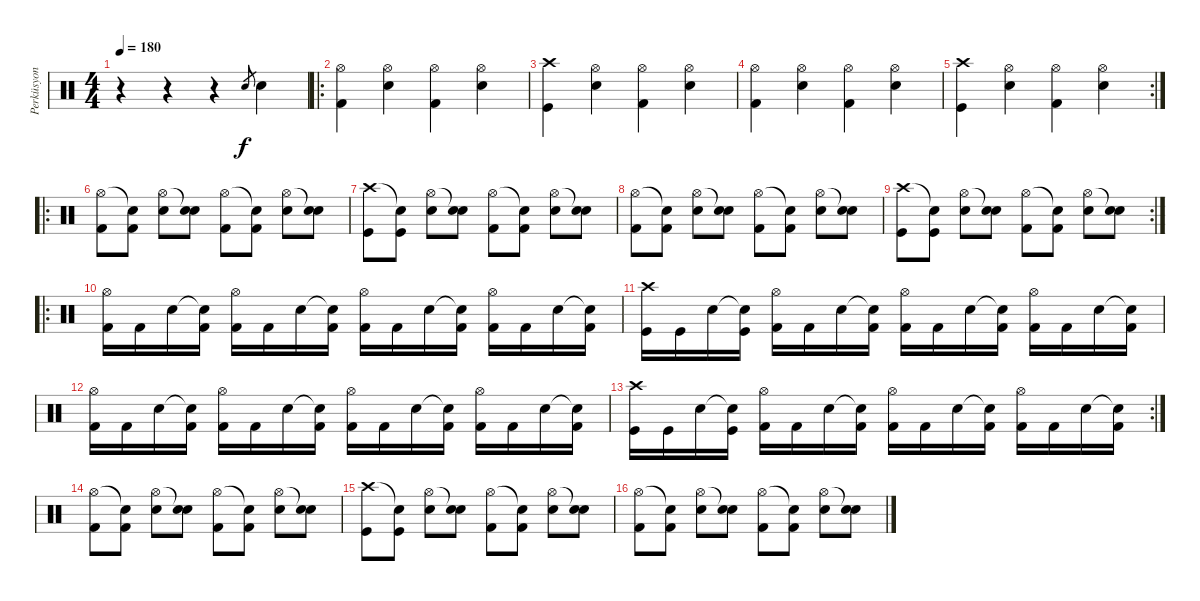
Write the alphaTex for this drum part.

\track ("Perküsyon" "Perküsyon") {instrument percussion}
\staff {score}
\articulation defaults
\ts (4 4)
\tempo 180
\clef neutral
\ks c
r.4{dy f} r.4 r.4 "Electric Snare (hit)".8{gr} "Electric Snare (hit)".4 |
\ro
("Hi-Hat (open)" "Kick (hit) 2").4 ("Hi-Hat (open)" "Electric Snare (hit)").4 ("Hi-Hat (open)" "Kick (hit) 2").4 ("Hi-Hat (open)" "Electric Snare (hit)").4 |
("Crash high (hit)" "Kick (hit)").4 ("Hi-Hat (open)" "Electric Snare (hit)").4 ("Hi-Hat (open)" "Kick (hit) 2").4 ("Hi-Hat (open)" "Electric Snare (hit)").4 |
("Hi-Hat (open)" "Kick (hit) 2").4 ("Hi-Hat (open)" "Electric Snare (hit)").4 ("Hi-Hat (open)" "Kick (hit) 2").4 ("Hi-Hat (open)" "Electric Snare (hit)").4 |
\rc 2
("Crash high (hit)" "Kick (hit)").4 ("Hi-Hat (open)" "Electric Snare (hit)").4 ("Hi-Hat (open)" "Kick (hit) 2").4 ("Hi-Hat (open)" "Electric Snare (hit)").4 |
\ro
("Hi-Hat (open)" "Kick (hit) 2").8 ("Snare (hit)"{t} "Kick (hit) 2").8 ("Hi-Hat (open)" "Electric Snare (hit)").8 ("Snare (hit)"{t} "Electric Snare (hit)").8 ("Hi-Hat (open)" "Kick (hit) 2").8 ("Snare (hit)"{t} "Kick (hit) 2").8 ("Hi-Hat (open)" "Electric Snare (hit)").8 ("Snare (hit)"{t} "Electric Snare (hit)").8 |
("Crash high (hit)" "Kick (hit)").8 ("Snare (hit)"{t} "Kick (hit)").8 ("Hi-Hat (open)" "Electric Snare (hit)").8 ("Snare (hit)"{t} "Electric Snare (hit)").8 ("Hi-Hat (open)" "Kick (hit) 2").8 ("Snare (hit)"{t} "Kick (hit) 2").8 ("Hi-Hat (open)" "Electric Snare (hit)").8 ("Snare (hit)"{t} "Electric Snare (hit)").8 |
("Hi-Hat (open)" "Kick (hit) 2").8 ("Snare (hit)"{t} "Kick (hit) 2").8 ("Hi-Hat (open)" "Electric Snare (hit)").8 ("Snare (hit)"{t} "Electric Snare (hit)").8 ("Hi-Hat (open)" "Kick (hit) 2").8 ("Snare (hit)"{t} "Kick (hit) 2").8 ("Hi-Hat (open)" "Electric Snare (hit)").8 ("Snare (hit)"{t} "Electric Snare (hit)").8 |
\rc 2
("Crash high (hit)" "Kick (hit)").8 ("Snare (hit)"{t} "Kick (hit)").8 ("Hi-Hat (open)" "Electric Snare (hit)").8 ("Snare (hit)"{t} "Electric Snare (hit)").8 ("Hi-Hat (open)" "Kick (hit) 2").8 ("Snare (hit)"{t} "Kick (hit) 2").8 ("Hi-Hat (open)" "Electric Snare (hit)").8 ("Snare (hit)"{t} "Electric Snare (hit)").8 |
\ro
("Hi-Hat (open)" "Kick (hit) 2").16 "Kick (hit) 2".16 "Electric Snare (hit)".16 ("Snare (hit)"{t} "Kick (hit) 2").16 ("Hi-Hat (open)" "Kick (hit) 2").16 "Kick (hit) 2".16 "Electric Snare (hit)".16 ("Snare (hit)"{t} "Kick (hit) 2").16 ("Hi-Hat (open)" "Kick (hit) 2").16 "Kick (hit) 2".16 "Electric Snare (hit)".16 ("Snare (hit)"{t} "Kick (hit) 2").16 ("Hi-Hat (open)" "Kick (hit) 2").16 "Kick (hit) 2".16 "Electric Snare (hit)".16 ("Snare (hit)"{t} "Kick (hit) 2").16 |
("Crash high (hit)" "Kick (hit)").16 "Kick (hit)".16 "Snare (hit) 2".16 ("Snare (hit)"{t} "Kick (hit)").16 ("Hi-Hat (open)" "Kick (hit) 2").16 "Kick (hit) 2".16 "Electric Snare (hit)".16 ("Snare (hit)"{t} "Kick (hit) 2").16 ("Hi-Hat (open)" "Kick (hit) 2").16 "Kick (hit) 2".16 "Electric Snare (hit)".16 ("Snare (hit)"{t} "Kick (hit) 2").16 ("Hi-Hat (open)" "Kick (hit) 2").16 "Kick (hit) 2".16 "Electric Snare (hit)".16 ("Snare (hit)"{t} "Kick (hit) 2").16 |
("Hi-Hat (open)" "Kick (hit) 2").16 "Kick (hit) 2".16 "Electric Snare (hit)".16 ("Snare (hit)"{t} "Kick (hit) 2").16 ("Hi-Hat (open)" "Kick (hit) 2").16 "Kick (hit) 2".16 "Electric Snare (hit)".16 ("Snare (hit)"{t} "Kick (hit) 2").16 ("Hi-Hat (open)" "Kick (hit) 2").16 "Kick (hit) 2".16 "Electric Snare (hit)".16 ("Snare (hit)"{t} "Kick (hit) 2").16 ("Hi-Hat (open)" "Kick (hit) 2").16 "Kick (hit) 2".16 "Electric Snare (hit)".16 ("Snare (hit)"{t} "Kick (hit) 2").16 |
\rc 2
("Crash high (hit)" "Kick (hit)").16 "Kick (hit)".16 "Snare (hit) 2".16 ("Snare (hit)"{t} "Kick (hit)").16 ("Hi-Hat (open)" "Kick (hit) 2").16 "Kick (hit) 2".16 "Electric Snare (hit)".16 ("Snare (hit)"{t} "Kick (hit) 2").16 ("Hi-Hat (open)" "Kick (hit) 2").16 "Kick (hit) 2".16 "Electric Snare (hit)".16 ("Snare (hit)"{t} "Kick (hit) 2").16 ("Hi-Hat (open)" "Kick (hit) 2").16 "Kick (hit) 2".16 "Electric Snare (hit)".16 ("Snare (hit)"{t} "Kick (hit) 2").16 |
("Hi-Hat (open)" "Kick (hit) 2").8 ("Snare (hit)"{t} "Kick (hit) 2").8 ("Hi-Hat (open)" "Electric Snare (hit)").8 ("Snare (hit)"{t} "Electric Snare (hit)").8 ("Hi-Hat (open)" "Kick (hit) 2").8 ("Snare (hit)"{t} "Kick (hit) 2").8 ("Hi-Hat (open)" "Electric Snare (hit)").8 ("Snare (hit)"{t} "Electric Snare (hit)").8 |
("Crash high (hit)" "Kick (hit)").8 ("Snare (hit)"{t} "Kick (hit)").8 ("Hi-Hat (open)" "Electric Snare (hit)").8 ("Snare (hit)"{t} "Electric Snare (hit)").8 ("Hi-Hat (open)" "Kick (hit) 2").8 ("Snare (hit)"{t} "Kick (hit) 2").8 ("Hi-Hat (open)" "Electric Snare (hit)").8 ("Snare (hit)"{t} "Electric Snare (hit)").8 |
("Hi-Hat (open)" "Kick (hit) 2").8 ("Snare (hit)"{t} "Kick (hit) 2").8 ("Hi-Hat (open)" "Electric Snare (hit)").8 ("Snare (hit)"{t} "Electric Snare (hit)").8 ("Hi-Hat (open)" "Kick (hit) 2").8 ("Snare (hit)"{t} "Kick (hit) 2").8 ("Hi-Hat (open)" "Electric Snare (hit)").8 ("Snare (hit)"{t} "Electric Snare (hit)").8
